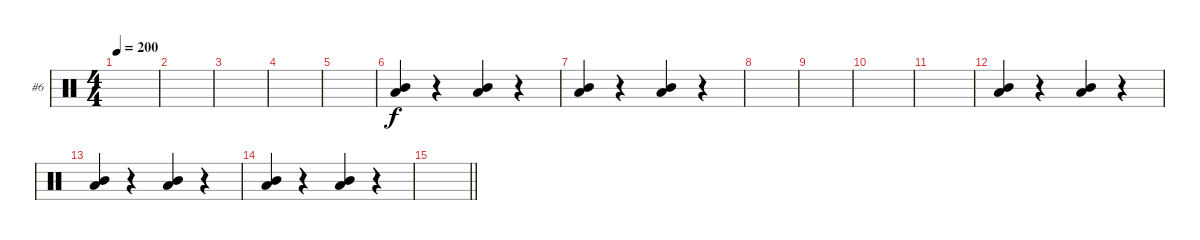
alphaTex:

\bracketExtendMode groupsimilarinstruments
\firstSystemTrackNameOrientation horizontal
\otherSystemsTrackNameOrientation horizontal
\track ("Shawn \"Clown\" Crahan" "#6") {instrument percussion}
\staff {score}
\articulation defaults
\ts (4 4)
\tempo 200
\clef neutral
\ks c
|
|
|
|
|
("Low Tom (hit)" "Mid Tom (hit)").4 r.4 ("Low Tom (hit)" "Mid Tom (hit)").4 r.4 |
("Low Tom (hit)" "Mid Tom (hit)").4 r.4 ("Low Tom (hit)" "Mid Tom (hit)").4 r.4 |
|
|
|
|
("Low Tom (hit)" "Mid Tom (hit)").4 r.4 ("Low Tom (hit)" "Mid Tom (hit)").4 r.4 |
("Low Tom (hit)" "Mid Tom (hit)").4 r.4 ("Low Tom (hit)" "Mid Tom (hit)").4 r.4 |
("Low Tom (hit)" "Mid Tom (hit)").4 r.4 ("Low Tom (hit)" "Mid Tom (hit)").4 r.4 |
\barLineRight lightlight
